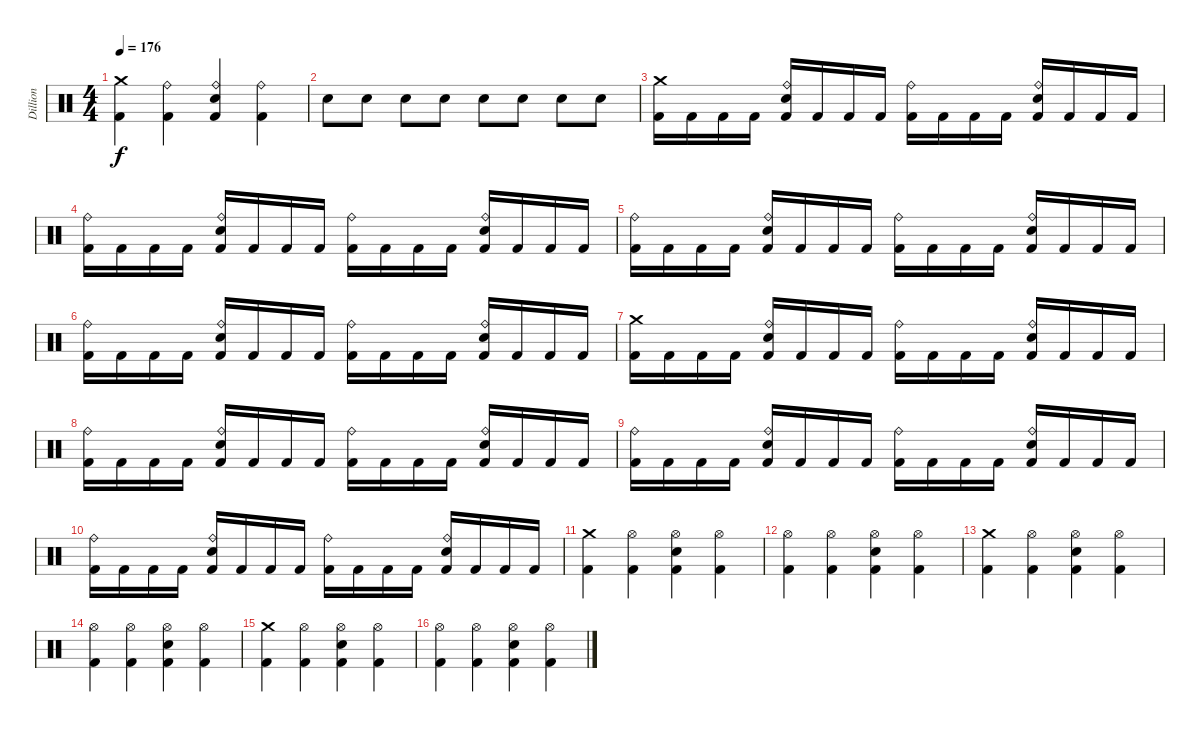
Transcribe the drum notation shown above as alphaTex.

\track ("Dillion" "Dillion") {instrument percussion}
\staff {score}
\articulation defaults
\ts (4 4)
\tempo 176
\clef neutral
\ks c
("Crash medium (hit)" "Kick (hit) 2").4{dy f} ("Ride (bell)" "Kick (hit) 2").4 ("Ride (bell)" "Electric Snare (hit)" "Kick (hit) 2").4 ("Ride (bell)" "Kick (hit) 2").4 |
"Electric Snare (hit)".8 "Electric Snare (hit)".8 "Electric Snare (hit)".8 "Electric Snare (hit)".8 "Electric Snare (hit)".8 "Electric Snare (hit)".8 "Electric Snare (hit)".8 "Electric Snare (hit)".8 |
("Crash medium (hit)" "Kick (hit) 2").16 "Kick (hit) 2".16 "Kick (hit) 2".16 "Kick (hit) 2".16 ("Ride (bell)" "Electric Snare (hit)" "Kick (hit) 2").16 "Kick (hit) 2".16 "Kick (hit) 2".16 "Kick (hit) 2".16 ("Ride (bell)" "Kick (hit) 2").16 "Kick (hit) 2".16 "Kick (hit) 2".16 "Kick (hit) 2".16 ("Ride (bell)" "Electric Snare (hit)" "Kick (hit) 2").16 "Kick (hit) 2".16 "Kick (hit) 2".16 "Kick (hit) 2".16 |
("Ride (bell)" "Kick (hit) 2").16 "Kick (hit) 2".16 "Kick (hit) 2".16 "Kick (hit) 2".16 ("Ride (bell)" "Electric Snare (hit)" "Kick (hit) 2").16 "Kick (hit) 2".16 "Kick (hit) 2".16 "Kick (hit) 2".16 ("Ride (bell)" "Kick (hit) 2").16 "Kick (hit) 2".16 "Kick (hit) 2".16 "Kick (hit) 2".16 ("Ride (bell)" "Electric Snare (hit)" "Kick (hit) 2").16 "Kick (hit) 2".16 "Kick (hit) 2".16 "Kick (hit) 2".16 |
("Ride (bell)" "Kick (hit) 2").16 "Kick (hit) 2".16 "Kick (hit) 2".16 "Kick (hit) 2".16 ("Ride (bell)" "Electric Snare (hit)" "Kick (hit) 2").16 "Kick (hit) 2".16 "Kick (hit) 2".16 "Kick (hit) 2".16 ("Ride (bell)" "Kick (hit) 2").16 "Kick (hit) 2".16 "Kick (hit) 2".16 "Kick (hit) 2".16 ("Ride (bell)" "Electric Snare (hit)" "Kick (hit) 2").16 "Kick (hit) 2".16 "Kick (hit) 2".16 "Kick (hit) 2".16 |
("Ride (bell)" "Kick (hit) 2").16 "Kick (hit) 2".16 "Kick (hit) 2".16 "Kick (hit) 2".16 ("Ride (bell)" "Electric Snare (hit)" "Kick (hit) 2").16 "Kick (hit) 2".16 "Kick (hit) 2".16 "Kick (hit) 2".16 ("Ride (bell)" "Kick (hit) 2").16 "Kick (hit) 2".16 "Kick (hit) 2".16 "Kick (hit) 2".16 ("Ride (bell)" "Electric Snare (hit)" "Kick (hit) 2").16 "Kick (hit) 2".16 "Kick (hit) 2".16 "Kick (hit) 2".16 |
("Crash medium (hit)" "Kick (hit) 2").16 "Kick (hit) 2".16 "Kick (hit) 2".16 "Kick (hit) 2".16 ("Ride (bell)" "Electric Snare (hit)" "Kick (hit) 2").16 "Kick (hit) 2".16 "Kick (hit) 2".16 "Kick (hit) 2".16 ("Ride (bell)" "Kick (hit) 2").16 "Kick (hit) 2".16 "Kick (hit) 2".16 "Kick (hit) 2".16 ("Ride (bell)" "Electric Snare (hit)" "Kick (hit) 2").16 "Kick (hit) 2".16 "Kick (hit) 2".16 "Kick (hit) 2".16 |
("Ride (bell)" "Kick (hit) 2").16 "Kick (hit) 2".16 "Kick (hit) 2".16 "Kick (hit) 2".16 ("Ride (bell)" "Electric Snare (hit)" "Kick (hit) 2").16 "Kick (hit) 2".16 "Kick (hit) 2".16 "Kick (hit) 2".16 ("Ride (bell)" "Kick (hit) 2").16 "Kick (hit) 2".16 "Kick (hit) 2".16 "Kick (hit) 2".16 ("Ride (bell)" "Electric Snare (hit)" "Kick (hit) 2").16 "Kick (hit) 2".16 "Kick (hit) 2".16 "Kick (hit) 2".16 |
("Ride (bell)" "Kick (hit) 2").16 "Kick (hit) 2".16 "Kick (hit) 2".16 "Kick (hit) 2".16 ("Ride (bell)" "Electric Snare (hit)" "Kick (hit) 2").16 "Kick (hit) 2".16 "Kick (hit) 2".16 "Kick (hit) 2".16 ("Ride (bell)" "Kick (hit) 2").16 "Kick (hit) 2".16 "Kick (hit) 2".16 "Kick (hit) 2".16 ("Ride (bell)" "Electric Snare (hit)" "Kick (hit) 2").16 "Kick (hit) 2".16 "Kick (hit) 2".16 "Kick (hit) 2".16 |
("Ride (bell)" "Kick (hit) 2").16 "Kick (hit) 2".16 "Kick (hit) 2".16 "Kick (hit) 2".16 ("Ride (bell)" "Electric Snare (hit)" "Kick (hit) 2").16 "Kick (hit) 2".16 "Kick (hit) 2".16 "Kick (hit) 2".16 ("Ride (bell)" "Kick (hit) 2").16 "Kick (hit) 2".16 "Kick (hit) 2".16 "Kick (hit) 2".16 ("Ride (bell)" "Electric Snare (hit)" "Kick (hit) 2").16 "Kick (hit) 2".16 "Kick (hit) 2".16 "Kick (hit) 2".16 |
("Crash medium (hit)" "Kick (hit) 2").4 ("Hi-Hat (open)" "Kick (hit) 2").4 ("Hi-Hat (open)" "Electric Snare (hit)" "Kick (hit) 2").4 ("Hi-Hat (open)" "Kick (hit) 2").4 |
("Hi-Hat (open)" "Kick (hit) 2").4 ("Hi-Hat (open)" "Kick (hit) 2").4 ("Hi-Hat (open)" "Electric Snare (hit)" "Kick (hit) 2").4 ("Hi-Hat (open)" "Kick (hit) 2").4 |
("Crash medium (hit)" "Kick (hit) 2").4 ("Hi-Hat (open)" "Kick (hit) 2").4 ("Hi-Hat (open)" "Electric Snare (hit)" "Kick (hit) 2").4 ("Hi-Hat (open)" "Kick (hit) 2").4 |
("Hi-Hat (open)" "Kick (hit) 2").4 ("Hi-Hat (open)" "Kick (hit) 2").4 ("Hi-Hat (open)" "Electric Snare (hit)" "Kick (hit) 2").4 ("Hi-Hat (open)" "Kick (hit) 2").4 |
("Crash medium (hit)" "Kick (hit) 2").4 ("Hi-Hat (open)" "Kick (hit) 2").4 ("Hi-Hat (open)" "Electric Snare (hit)" "Kick (hit) 2").4 ("Hi-Hat (open)" "Kick (hit) 2").4 |
("Hi-Hat (open)" "Kick (hit) 2").4 ("Hi-Hat (open)" "Kick (hit) 2").4 ("Hi-Hat (open)" "Electric Snare (hit)" "Kick (hit) 2").4 ("Hi-Hat (open)" "Kick (hit) 2").4
